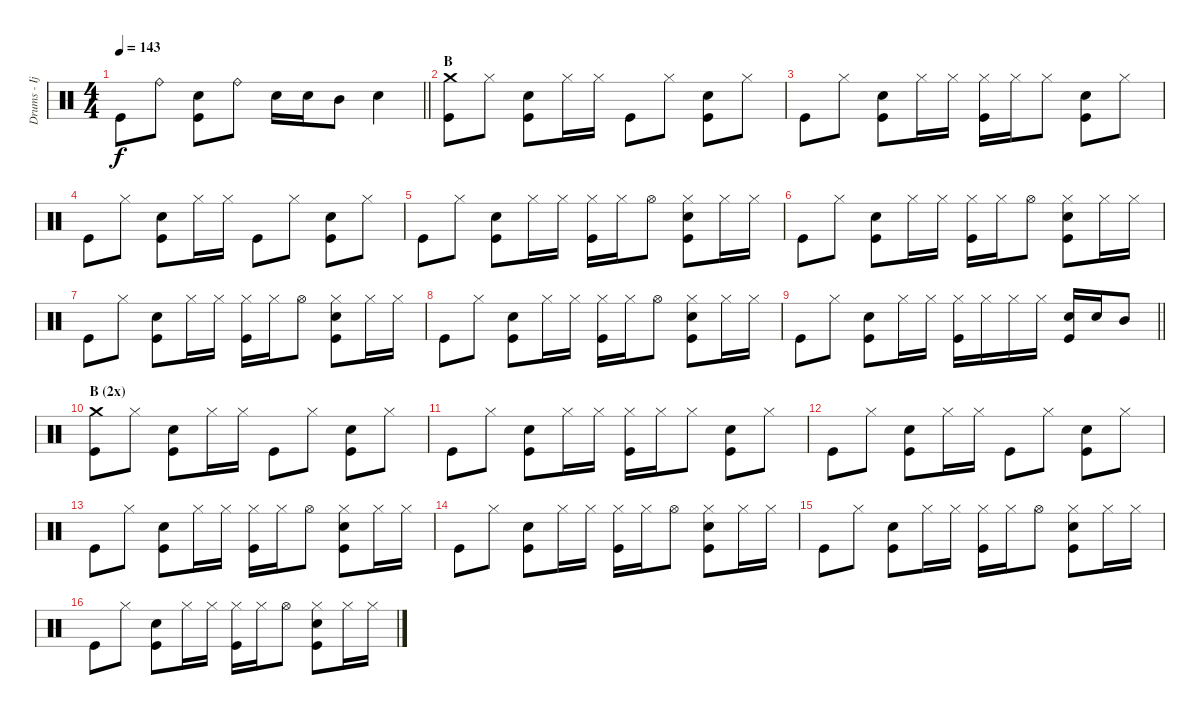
\track ("Drums - Ijichi" "Drums - Ij") {instrument percussion}
\staff {score}
\articulation defaults
\ts (4 4)
\tempo 143
\clef neutral
\barLineRight lightlight
\ks c "Kick (hit)".8{dy f} "Ride (bell)".8
("Electric Snare (hit)" "Kick (hit)").8 "Ride (bell)".8 "Electric Snare (hit)".16 "Electric Snare (hit)".16 "Mid Tom (hit)".8 "Electric Snare (hit)".4 |
\section ("" "B")
("Crash medium (hit)" "Kick (hit)").8 "Hi-Hat (closed)".8 ("Electric Snare (hit)" "Kick (hit)").8 "Hi-Hat (closed)".16 "Hi-Hat (closed)".16 "Kick (hit)".8 "Hi-Hat (closed)".8 ("Electric Snare (hit)" "Kick (hit)").8 "Hi-Hat (closed)".8 |
"Kick (hit)".8 "Hi-Hat (closed)".8 ("Electric Snare (hit)" "Kick (hit)").8 "Hi-Hat (closed)".16 "Hi-Hat (closed)".16 ("Hi-Hat (closed)" "Kick (hit)").16 "Hi-Hat (closed)".16 "Hi-Hat (closed)".8 ("Electric Snare (hit)" "Kick (hit)").8 "Hi-Hat (closed)".8 |
"Kick (hit)".8 "Hi-Hat (closed)".8 ("Electric Snare (hit)" "Kick (hit)").8 "Hi-Hat (closed)".16 "Hi-Hat (closed)".16 "Kick (hit)".8 "Hi-Hat (closed)".8 ("Electric Snare (hit)" "Kick (hit)").8 "Hi-Hat (closed)".8 |
"Kick (hit)".8 "Hi-Hat (closed)".8 ("Electric Snare (hit)" "Kick (hit)").8 "Hi-Hat (closed)".16 "Hi-Hat (closed)".16 ("Hi-Hat (closed)" "Kick (hit)").16 "Hi-Hat (closed)".16 "Hi-Hat (open)".8 ("Hi-Hat (closed)" "Electric Snare (hit)" "Kick (hit)").8 "Hi-Hat (closed)".16 "Hi-Hat (closed)".16 |
"Kick (hit)".8 "Hi-Hat (closed)".8 ("Electric Snare (hit)" "Kick (hit)").8 "Hi-Hat (closed)".16 "Hi-Hat (closed)".16 ("Hi-Hat (closed)" "Kick (hit)").16 "Hi-Hat (closed)".16 "Hi-Hat (open)".8 ("Hi-Hat (closed)" "Electric Snare (hit)" "Kick (hit)").8 "Hi-Hat (closed)".16 "Hi-Hat (closed)".16 |
"Kick (hit)".8 "Hi-Hat (closed)".8 ("Electric Snare (hit)" "Kick (hit)").8 "Hi-Hat (closed)".16 "Hi-Hat (closed)".16 ("Hi-Hat (closed)" "Kick (hit)").16 "Hi-Hat (closed)".16 "Hi-Hat (open)".8 ("Hi-Hat (closed)" "Electric Snare (hit)" "Kick (hit)").8 "Hi-Hat (closed)".16 "Hi-Hat (closed)".16 |
"Kick (hit)".8 "Hi-Hat (closed)".8 ("Electric Snare (hit)" "Kick (hit)").8 "Hi-Hat (closed)".16 "Hi-Hat (closed)".16 ("Hi-Hat (closed)" "Kick (hit)").16 "Hi-Hat (closed)".16 "Hi-Hat (open)".8 ("Hi-Hat (closed)" "Electric Snare (hit)" "Kick (hit)").8 "Hi-Hat (closed)".16 "Hi-Hat (closed)".16 |
\barLineRight lightlight "Kick (hit)".8 "Hi-Hat (closed)".8
("Electric Snare (hit)" "Kick (hit)").8 "Hi-Hat (closed)".16 "Hi-Hat (closed)".16 ("Hi-Hat (closed)" "Kick (hit)").16 "Hi-Hat (closed)".16 "Hi-Hat (closed)".16 "Hi-Hat (closed)".16 ("Electric Snare (hit)" "Kick (hit)").16 "Electric Snare (hit)".16 "Mid Tom (hit)".8 |
\section ("" "B (2x)")
("Crash medium (hit)" "Kick (hit)").8 "Hi-Hat (closed)".8 ("Electric Snare (hit)" "Kick (hit)").8 "Hi-Hat (closed)".16 "Hi-Hat (closed)".16 "Kick (hit)".8 "Hi-Hat (closed)".8 ("Electric Snare (hit)" "Kick (hit)").8 "Hi-Hat (closed)".8 |
"Kick (hit)".8 "Hi-Hat (closed)".8 ("Electric Snare (hit)" "Kick (hit)").8 "Hi-Hat (closed)".16 "Hi-Hat (closed)".16 ("Hi-Hat (closed)" "Kick (hit)").16 "Hi-Hat (closed)".16 "Hi-Hat (closed)".8 ("Electric Snare (hit)" "Kick (hit)").8 "Hi-Hat (closed)".8 |
"Kick (hit)".8 "Hi-Hat (closed)".8 ("Electric Snare (hit)" "Kick (hit)").8 "Hi-Hat (closed)".16 "Hi-Hat (closed)".16 "Kick (hit)".8 "Hi-Hat (closed)".8 ("Electric Snare (hit)" "Kick (hit)").8 "Hi-Hat (closed)".8 |
"Kick (hit)".8 "Hi-Hat (closed)".8 ("Electric Snare (hit)" "Kick (hit)").8 "Hi-Hat (closed)".16 "Hi-Hat (closed)".16 ("Hi-Hat (closed)" "Kick (hit)").16 "Hi-Hat (closed)".16 "Hi-Hat (open)".8 ("Hi-Hat (closed)" "Electric Snare (hit)" "Kick (hit)").8 "Hi-Hat (closed)".16 "Hi-Hat (closed)".16 |
"Kick (hit)".8 "Hi-Hat (closed)".8 ("Electric Snare (hit)" "Kick (hit)").8 "Hi-Hat (closed)".16 "Hi-Hat (closed)".16 ("Hi-Hat (closed)" "Kick (hit)").16 "Hi-Hat (closed)".16 "Hi-Hat (open)".8 ("Hi-Hat (closed)" "Electric Snare (hit)" "Kick (hit)").8 "Hi-Hat (closed)".16 "Hi-Hat (closed)".16 |
"Kick (hit)".8 "Hi-Hat (closed)".8 ("Electric Snare (hit)" "Kick (hit)").8 "Hi-Hat (closed)".16 "Hi-Hat (closed)".16 ("Hi-Hat (closed)" "Kick (hit)").16 "Hi-Hat (closed)".16 "Hi-Hat (open)".8 ("Hi-Hat (closed)" "Electric Snare (hit)" "Kick (hit)").8 "Hi-Hat (closed)".16 "Hi-Hat (closed)".16 |
"Kick (hit)".8 "Hi-Hat (closed)".8 ("Electric Snare (hit)" "Kick (hit)").8 "Hi-Hat (closed)".16 "Hi-Hat (closed)".16 ("Hi-Hat (closed)" "Kick (hit)").16 "Hi-Hat (closed)".16 "Hi-Hat (open)".8 ("Hi-Hat (closed)" "Electric Snare (hit)" "Kick (hit)").8 "Hi-Hat (closed)".16 "Hi-Hat (closed)".16
